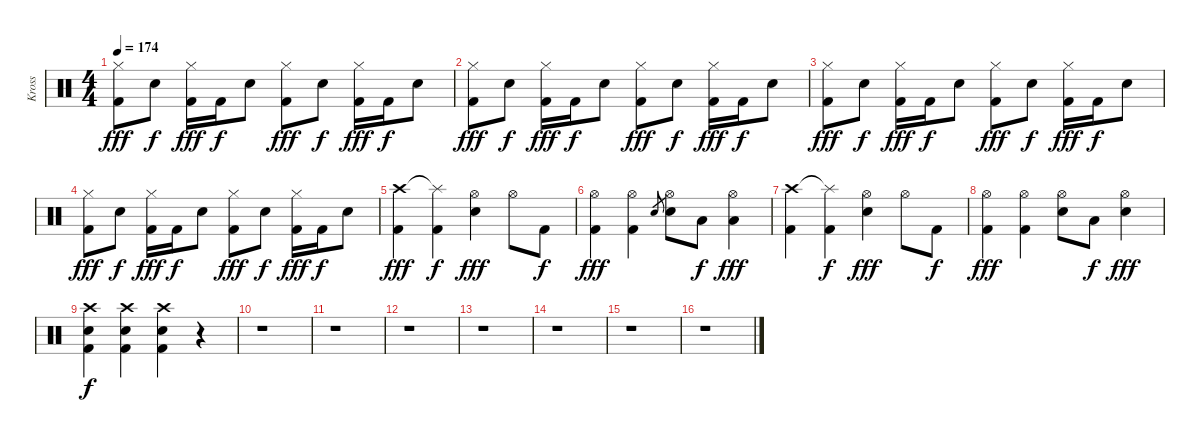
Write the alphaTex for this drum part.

\track ("Kross" "Kross") {instrument percussion}
\staff {score}
\articulation defaults
\ts (4 4)
\tempo 174
\clef neutral
\ks c
("Hi-Hat (closed)" "Kick (hit) 2").8{dy fff} "Electric Snare (hit)".8{dy f} ("Hi-Hat (closed)" "Kick (hit) 2").16{dy fff} "Kick (hit) 2".16{dy f} "Electric Snare (hit)".8 ("Hi-Hat (closed)" "Kick (hit) 2").8{dy fff} "Electric Snare (hit)".8{dy f} ("Hi-Hat (closed)" "Kick (hit) 2").16{dy fff} "Kick (hit) 2".16{dy f} "Electric Snare (hit)".8 |
("Hi-Hat (closed)" "Kick (hit) 2").8{dy fff} "Electric Snare (hit)".8{dy f} ("Hi-Hat (closed)" "Kick (hit) 2").16{dy fff} "Kick (hit) 2".16{dy f} "Electric Snare (hit)".8 ("Hi-Hat (closed)" "Kick (hit) 2").8{dy fff} "Electric Snare (hit)".8{dy f} ("Hi-Hat (closed)" "Kick (hit) 2").16{dy fff} "Kick (hit) 2".16{dy f} "Electric Snare (hit)".8 |
("Hi-Hat (closed)" "Kick (hit) 2").8{dy fff} "Electric Snare (hit)".8{dy f} ("Hi-Hat (closed)" "Kick (hit) 2").16{dy fff} "Kick (hit) 2".16{dy f} "Electric Snare (hit)".8 ("Hi-Hat (closed)" "Kick (hit) 2").8{dy fff} "Electric Snare (hit)".8{dy f} ("Hi-Hat (closed)" "Kick (hit) 2").16{dy fff} "Kick (hit) 2".16{dy f} "Electric Snare (hit)".8 |
("Hi-Hat (closed)" "Kick (hit) 2").8{dy fff} "Electric Snare (hit)".8{dy f} ("Hi-Hat (closed)" "Kick (hit) 2").16{dy fff} "Kick (hit) 2".16{dy f} "Electric Snare (hit)".8 ("Hi-Hat (closed)" "Kick (hit) 2").8{dy fff} "Electric Snare (hit)".8{dy f} ("Hi-Hat (closed)" "Kick (hit) 2").16{dy fff} "Kick (hit) 2".16{dy f} "Electric Snare (hit)".8 |
("Crash high (hit)" "Kick (hit) 2").4{dy fff} ("Splash (hit)"{t} "Kick (hit) 2").4{dy f} ("Hi-Hat (open)" "Electric Snare (hit)").4{dy fff} "Hi-Hat (open)".8 "Kick (hit) 2".8{dy f} |
("Hi-Hat (open)" "Kick (hit) 2").4{dy fff} ("Hi-Hat (open)" "Kick (hit) 2").4 "Electric Snare (hit)".8{gr} ("Hi-Hat (open)" "Electric Snare (hit)").8 "Low Tom (hit)".8{dy f} ("Hi-Hat (open)" "Low Tom (hit)").4{dy fff} |
("Crash high (hit)" "Kick (hit) 2").4 ("Splash (hit)"{t} "Kick (hit) 2").4{dy f} ("Hi-Hat (open)" "Electric Snare (hit)").4{dy fff} "Hi-Hat (open)".8 "Kick (hit) 2".8{dy f} |
("Hi-Hat (open)" "Kick (hit) 2").4{dy fff} ("Hi-Hat (open)" "Kick (hit) 2").4 ("Hi-Hat (open)" "Electric Snare (hit)").8 "Low Tom (hit)".8{dy f} ("Hi-Hat (open)" "Electric Snare (hit)").4{dy fff} |
("Crash high (hit)" "Electric Snare (hit)" "Kick (hit) 2").4{dy f} ("Crash high (hit)" "Electric Snare (hit)" "Kick (hit) 2").4 ("Crash high (hit)" "Electric Snare (hit)" "Kick (hit) 2").4 r.4 |
r.1 |
r.1 |
r.1 |
r.1 |
r.1 |
r.1 |
r.1
